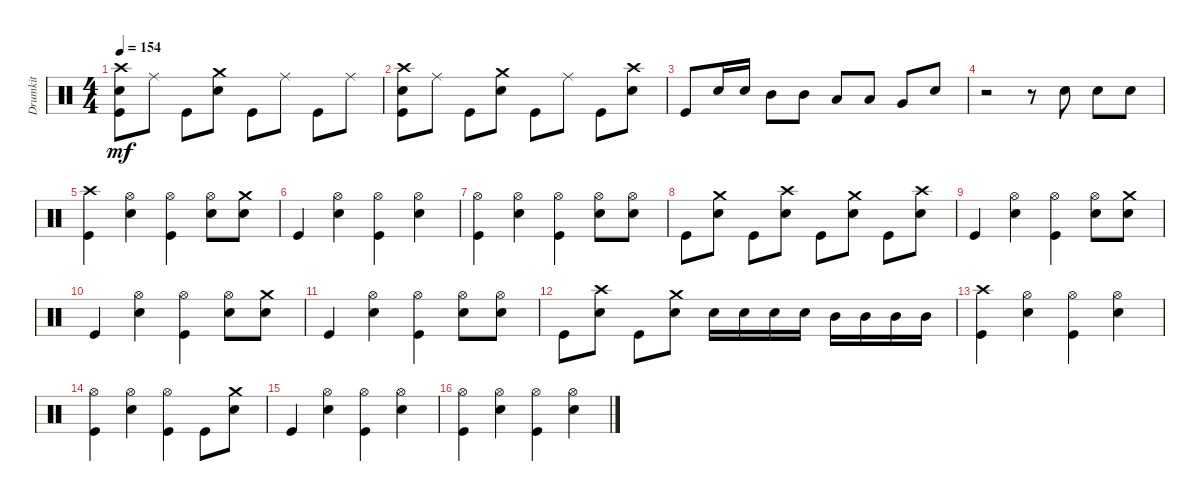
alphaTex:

\track ("Drumkit" "Drumkit") {instrument percussion}
\staff {score}
\articulation defaults
\ts (4 4)
\tempo 154
\clef neutral
\ks c
("Snare (hit) 2" "Kick (hit)" "Crash high (hit)").8{dy mf} "Ride (middle)".8 "Kick (hit)".8 ("Snare (hit) 2" "Crash medium (hit)").8 "Kick (hit)".8 "Ride (middle)".8 "Kick (hit)".8 "Ride (middle)".8 |
("Kick (hit)" "Snare (hit) 2" "Crash high (hit)").8 "Ride (middle)".8 "Kick (hit)".8 ("Snare (hit) 2" "Crash medium (hit)").8 "Kick (hit)".8 "Ride (middle)".8 "Kick (hit)".8 ("Snare (hit) 2" "Crash high (hit)").8 |
"Kick (hit)".8 "Snare (hit) 2".16 "Snare (hit) 2".16 "Mid Tom (hit)".8 "Mid Tom (hit)".8 "Low Tom (hit)".8 "Low Tom (hit)".8 "Very Low Tom (hit)".8 "Snare (hit) 2".8 |
r.2 r.8 "Snare (hit) 2".8 "Snare (hit) 2".8 "Snare (hit) 2".8 |
("Kick (hit)" "Crash high (hit)").4 ("Snare (hit) 2" "Hi-Hat (open)").4 ("Kick (hit)" "Hi-Hat (open)").4 ("Snare (hit) 2" "Hi-Hat (open)").8 ("Snare (hit) 2" "Crash medium (hit)").8 |
"Kick (hit)".4 ("Snare (hit) 2" "Hi-Hat (open)").4 ("Kick (hit)" "Hi-Hat (open)").4 ("Snare (hit) 2" "Hi-Hat (open)").4 |
("Kick (hit)" "Hi-Hat (open)").4 ("Snare (hit) 2" "Hi-Hat (open)").4 ("Kick (hit)" "Hi-Hat (open)").4 ("Snare (hit) 2" "Hi-Hat (open)").8 ("Snare (hit) 2" "Hi-Hat (open)").8 |
"Kick (hit)".8 ("Snare (hit) 2" "Crash medium (hit)").8 "Kick (hit)".8 ("Snare (hit) 2" "Crash high (hit)").8 "Kick (hit)".8 ("Snare (hit) 2" "Crash medium (hit)").8 "Kick (hit)".8 ("Snare (hit) 2" "Crash high (hit)").8 |
"Kick (hit)".4 ("Snare (hit) 2" "Hi-Hat (open)").4 ("Kick (hit)" "Hi-Hat (open)").4 ("Snare (hit) 2" "Hi-Hat (open)").8 ("Snare (hit) 2" "Crash medium (hit)").8 |
"Kick (hit)".4 ("Snare (hit) 2" "Hi-Hat (open)").4 ("Kick (hit)" "Hi-Hat (open)").4 ("Snare (hit) 2" "Hi-Hat (open)").8 ("Snare (hit) 2" "Crash medium (hit)").8 |
"Kick (hit)".4 ("Snare (hit) 2" "Hi-Hat (open)").4 ("Kick (hit)" "Hi-Hat (open)").4 ("Snare (hit) 2" "Hi-Hat (open)").8 ("Snare (hit) 2" "Hi-Hat (open)").8 |
"Kick (hit)".8 ("Snare (hit) 2" "Crash high (hit)").8 "Kick (hit)".8 ("Snare (hit) 2" "Crash medium (hit)").8 "Snare (hit) 2".16 "Snare (hit) 2".16 "Snare (hit) 2".16 "Snare (hit) 2".16 "Mid Tom (hit)".16 "Mid Tom (hit)".16 "Mid Tom (hit)".16 "Mid Tom (hit)".16 |
("Kick (hit)" "Crash high (hit)").4 ("Snare (hit) 2" "Hi-Hat (open)").4 ("Kick (hit)" "Hi-Hat (open)").4 ("Snare (hit) 2" "Hi-Hat (open)").4 |
("Kick (hit)" "Hi-Hat (open)").4 ("Snare (hit) 2" "Hi-Hat (open)").4 ("Kick (hit)" "Hi-Hat (open)").4 "Kick (hit)".8 ("Snare (hit) 2" "Crash medium (hit)").8 |
"Kick (hit)".4 ("Snare (hit) 2" "Hi-Hat (open)").4 ("Kick (hit)" "Hi-Hat (open)").4 ("Snare (hit) 2" "Hi-Hat (open)").4 |
("Kick (hit)" "Hi-Hat (open)").4 ("Snare (hit) 2" "Hi-Hat (open)").4 ("Kick (hit)" "Hi-Hat (open)").4 ("Snare (hit) 2" "Hi-Hat (open)").4
